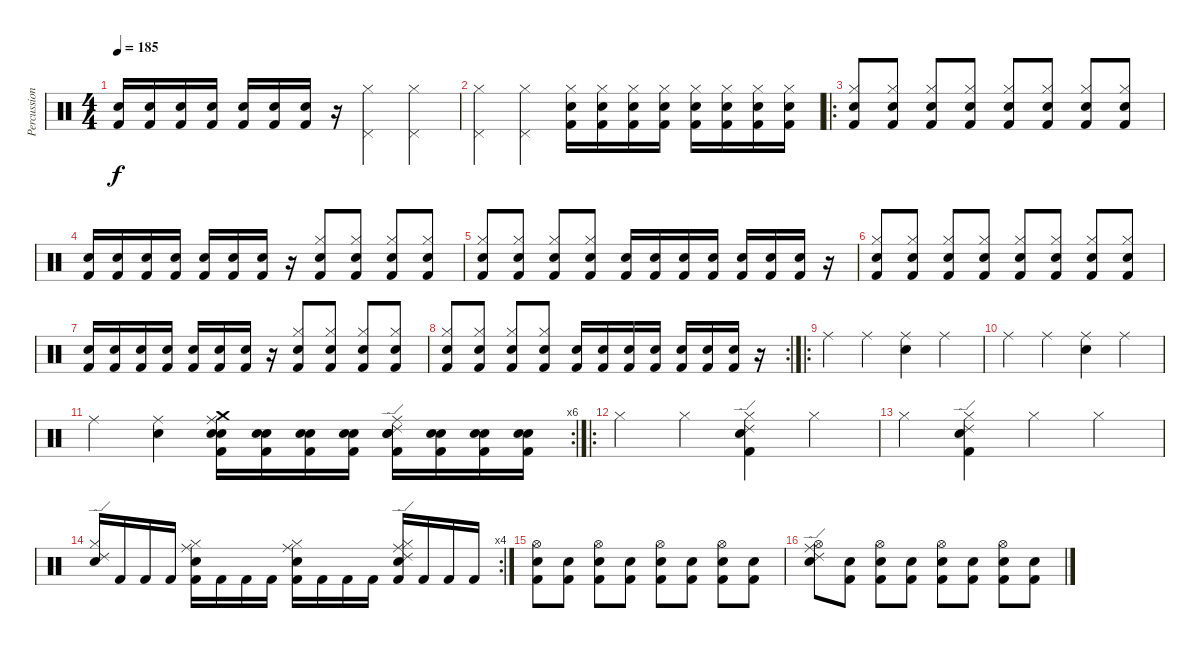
\track ("Percussions" "Percussion") {instrument percussion}
\staff {score}
\articulation defaults
\ts (4 4)
\tempo 185
\clef neutral
\ks c
("Electric Snare (hit)" "Kick (hit) 2").16{dy f} ("Electric Snare (hit)" "Kick (hit) 2").16 ("Electric Snare (hit)" "Kick (hit) 2").16 ("Electric Snare (hit)" "Kick (hit) 2").16 ("Electric Snare (hit)" "Kick (hit) 2").16 ("Electric Snare (hit)" "Kick (hit) 2").16 ("Electric Snare (hit)" "Kick (hit) 2").16 r.16 ("Hi-Hat (closed)" "Pedal Hi-Hat (hit)").4 ("Hi-Hat (closed)" "Pedal Hi-Hat (hit)").4 |
("Hi-Hat (closed)" "Pedal Hi-Hat (hit)").4 ("Hi-Hat (closed)" "Pedal Hi-Hat (hit)").4 ("Hi-Hat (closed)" "Electric Snare (hit)" "Kick (hit) 2").16 ("Hi-Hat (closed)" "Snare (hit) 2" "Kick (hit) 2").16 ("Hi-Hat (closed)" "Electric Snare (hit)" "Kick (hit) 2").16 ("Hi-Hat (closed)" "Snare (hit) 2" "Kick (hit) 2").16 ("Hi-Hat (closed)" "Electric Snare (hit)" "Kick (hit) 2").16 ("Hi-Hat (closed)" "Snare (hit) 2" "Kick (hit) 2").16 ("Hi-Hat (closed)" "Electric Snare (hit)" "Kick (hit) 2").16 ("Hi-Hat (closed)" "Snare (hit) 2" "Kick (hit) 2").16 |
\ro
("Hi-Hat (closed)" "Snare (hit) 2" "Kick (hit) 2").8 ("Hi-Hat (closed)" "Snare (hit) 2" "Kick (hit) 2").8 ("Hi-Hat (closed)" "Snare (hit) 2" "Kick (hit) 2").8 ("Hi-Hat (closed)" "Snare (hit) 2" "Kick (hit) 2").8 ("Hi-Hat (closed)" "Snare (hit) 2" "Kick (hit) 2").8 ("Hi-Hat (closed)" "Snare (hit) 2" "Kick (hit) 2").8 ("Hi-Hat (closed)" "Snare (hit) 2" "Kick (hit) 2").8 ("Hi-Hat (closed)" "Snare (hit) 2" "Kick (hit) 2").8 |
("Snare (hit) 2" "Kick (hit) 2").16 ("Snare (hit) 2" "Kick (hit) 2").16 ("Snare (hit) 2" "Kick (hit) 2").16 ("Snare (hit) 2" "Kick (hit) 2").16 ("Snare (hit) 2" "Kick (hit) 2").16 ("Snare (hit) 2" "Kick (hit) 2").16 ("Snare (hit) 2" "Kick (hit) 2").16 r.16 ("Hi-Hat (closed)" "Snare (hit) 2" "Kick (hit) 2").8 ("Hi-Hat (closed)" "Snare (hit) 2" "Kick (hit) 2").8 ("Hi-Hat (closed)" "Snare (hit) 2" "Kick (hit) 2").8 ("Hi-Hat (closed)" "Snare (hit) 2" "Kick (hit) 2").8 |
("Hi-Hat (closed)" "Snare (hit) 2" "Kick (hit) 2").8 ("Hi-Hat (closed)" "Snare (hit) 2" "Kick (hit) 2").8 ("Hi-Hat (closed)" "Snare (hit) 2" "Kick (hit) 2").8 ("Hi-Hat (closed)" "Snare (hit) 2" "Kick (hit) 2").8 ("Snare (hit) 2" "Kick (hit) 2").16 ("Snare (hit) 2" "Kick (hit) 2").16 ("Snare (hit) 2" "Kick (hit) 2").16 ("Snare (hit) 2" "Kick (hit) 2").16 ("Snare (hit) 2" "Kick (hit) 2").16 ("Snare (hit) 2" "Kick (hit) 2").16 ("Snare (hit) 2" "Kick (hit) 2").16 r.16 |
("Hi-Hat (closed)" "Snare (hit) 2" "Kick (hit) 2").8 ("Hi-Hat (closed)" "Snare (hit) 2" "Kick (hit) 2").8 ("Hi-Hat (closed)" "Snare (hit) 2" "Kick (hit) 2").8 ("Hi-Hat (closed)" "Snare (hit) 2" "Kick (hit) 2").8 ("Hi-Hat (closed)" "Snare (hit) 2" "Kick (hit) 2").8 ("Hi-Hat (closed)" "Snare (hit) 2" "Kick (hit) 2").8 ("Hi-Hat (closed)" "Snare (hit) 2" "Kick (hit) 2").8 ("Hi-Hat (closed)" "Snare (hit) 2" "Kick (hit) 2").8 |
("Snare (hit) 2" "Kick (hit) 2").16 ("Snare (hit) 2" "Kick (hit) 2").16 ("Snare (hit) 2" "Kick (hit) 2").16 ("Snare (hit) 2" "Kick (hit) 2").16 ("Snare (hit) 2" "Kick (hit) 2").16 ("Snare (hit) 2" "Kick (hit) 2").16 ("Snare (hit) 2" "Kick (hit) 2").16 r.16 ("Hi-Hat (closed)" "Snare (hit) 2" "Kick (hit) 2").8 ("Hi-Hat (closed)" "Snare (hit) 2" "Kick (hit) 2").8 ("Hi-Hat (closed)" "Snare (hit) 2" "Kick (hit) 2").8 ("Hi-Hat (closed)" "Snare (hit) 2" "Kick (hit) 2").8 |
\rc 2
("Hi-Hat (closed)" "Snare (hit) 2" "Kick (hit) 2").8 ("Hi-Hat (closed)" "Snare (hit) 2" "Kick (hit) 2").8 ("Hi-Hat (closed)" "Snare (hit) 2" "Kick (hit) 2").8 ("Hi-Hat (closed)" "Snare (hit) 2" "Kick (hit) 2").8 ("Snare (hit) 2" "Kick (hit) 2").16 ("Snare (hit) 2" "Kick (hit) 2").16 ("Snare (hit) 2" "Kick (hit) 2").16 ("Snare (hit) 2" "Kick (hit) 2").16 ("Snare (hit) 2" "Kick (hit) 2").16 ("Snare (hit) 2" "Kick (hit) 2").16 ("Snare (hit) 2" "Kick (hit) 2").16 r.16 |
\ro "Ride (middle)".4 "Ride (middle)".4
("Ride (middle)" "Electric Snare (hit)").4 "Ride (middle)".4 |
"Ride (middle)".4 "Ride (middle)".4 ("Ride (middle)" "Electric Snare (hit)").4 "Ride (middle)".4 |
\rc 6 "Ride (middle)".4
("Ride (middle)" "Electric Snare (hit)").4 ("Ride (middle)" "Crash medium (hit)" "Kick (hit) 2" "Snare (hit) 2" "Electric Snare (hit)").16 ("Kick (hit) 2" "Snare (hit) 2" "Electric Snare (hit)").16 ("Kick (hit) 2" "Snare (hit) 2" "Electric Snare (hit)").16 ("Kick (hit) 2" "Snare (hit) 2" "Electric Snare (hit)").16 ("Ride (middle)" "Ride (edge) 2" "Kick (hit) 2" "Snare (hit) 2" "Electric Snare (hit)").16 ("Kick (hit) 2" "Snare (hit) 2" "Electric Snare (hit)").16 ("Kick (hit) 2" "Snare (hit) 2" "Electric Snare (hit)").16 ("Kick (hit) 2" "Snare (hit) 2" "Electric Snare (hit)").16 |
\ro "Hi-Hat (closed)".4 "Hi-Hat (closed)".4
("Hi-Hat (closed)" "Ride (edge) 2" "Electric Snare (hit)" "Kick (hit) 2").4 "Hi-Hat (closed)".4 |
"Hi-Hat (closed)".4 ("Hi-Hat (closed)" "Ride (edge) 2" "Electric Snare (hit)" "Kick (hit) 2").4 "Hi-Hat (closed)".4 "Hi-Hat (closed)".4 |
\rc 4
("Hi-Hat (closed)" "Ride (edge) 2" "Electric Snare (hit)").16 "Kick (hit) 2".16 "Kick (hit) 2".16 "Kick (hit) 2".16 ("Hi-Hat (closed)" "Ride (middle)" "Snare (hit) 2" "Kick (hit) 2").16 "Kick (hit) 2".16 "Kick (hit) 2".16 "Kick (hit) 2".16 ("Hi-Hat (closed)" "Ride (middle)" "Snare (hit) 2" "Kick (hit) 2").16 "Kick (hit) 2".16 "Kick (hit) 2".16 "Kick (hit) 2".16 ("Hi-Hat (closed)" "Ride (edge) 2" "Ride (middle)" "Electric Snare (hit)" "Kick (hit) 2").16 "Kick (hit) 2".16 "Kick (hit) 2".16 "Kick (hit) 2".16 |
("Hi-Hat (open)" "Snare (hit) 2" "Kick (hit) 2").8 ("Snare (hit) 2" "Kick (hit) 2").8 ("Hi-Hat (open)" "Snare (hit) 2" "Kick (hit) 2").8 ("Snare (hit) 2" "Kick (hit) 2").8 ("Hi-Hat (open)" "Snare (hit) 2" "Kick (hit) 2").8 ("Snare (hit) 2" "Kick (hit) 2").8 ("Hi-Hat (open)" "Snare (hit) 2" "Kick (hit) 2").8 ("Snare (hit) 2" "Kick (hit) 2").8 |
("Hi-Hat (open)" "Ride (middle)" "Ride (edge) 2" "Snare (hit) 2").8 ("Snare (hit) 2" "Kick (hit) 2").8 ("Hi-Hat (open)" "Snare (hit) 2" "Kick (hit) 2").8 ("Snare (hit) 2" "Kick (hit) 2").8 ("Hi-Hat (open)" "Snare (hit) 2" "Kick (hit) 2").8 ("Snare (hit) 2" "Kick (hit) 2").8 ("Hi-Hat (open)" "Snare (hit) 2" "Kick (hit) 2").8 ("Snare (hit) 2" "Kick (hit) 2").8
